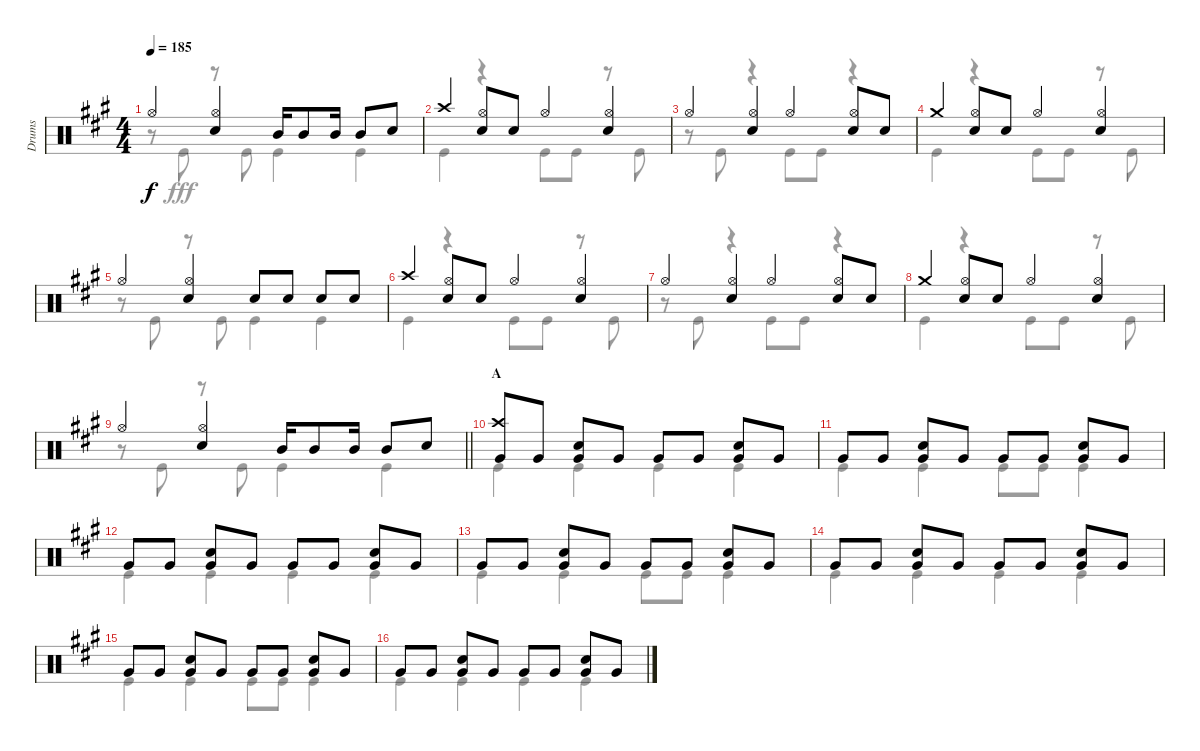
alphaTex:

\track ("Drums" "Drums") {instrument percussion}
\staff {score}
\articulation defaults
\voice
\ts (4 4)
\tempo 185
\clef neutral
\ks a "Hi-Hat (open)".4{dy f}
("Hi-Hat (open)" "Snare (hit) 2").4 "Mid Tom (hit)".16 "Mid Tom (hit)".8 "Mid Tom (hit)".16 "Mid Tom (hit)".8 "Snare (hit) 2".8 |
"Crash high (hit)".4 ("Hi-Hat (open)" "Snare (hit) 2").8 "Snare (hit) 2".8 "Hi-Hat (open)".4 ("Hi-Hat (open)" "Snare (hit) 2").4 |
"Hi-Hat (open)".4 ("Hi-Hat (open)" "Snare (hit) 2").4 "Hi-Hat (open)".4 ("Hi-Hat (open)" "Snare (hit) 2").8 "Snare (hit) 2".8 |
"Crash medium (hit)".4 ("Hi-Hat (open)" "Snare (hit) 2").8 "Snare (hit) 2".8 "Hi-Hat (open)".4 ("Hi-Hat (open)" "Snare (hit) 2").4 |
"Hi-Hat (open)".4 ("Hi-Hat (open)" "Snare (hit) 2").4 "Snare (hit) 2".8 "Snare (hit) 2".8 "Snare (hit) 2".8 "Snare (hit) 2".8 |
"Crash high (hit)".4 ("Hi-Hat (open)" "Snare (hit) 2").8 "Snare (hit) 2".8 "Hi-Hat (open)".4 ("Hi-Hat (open)" "Snare (hit) 2").4 |
"Hi-Hat (open)".4 ("Hi-Hat (open)" "Snare (hit) 2").4 "Hi-Hat (open)".4 ("Hi-Hat (open)" "Snare (hit) 2").8 "Snare (hit) 2".8 |
"Crash medium (hit)".4 ("Hi-Hat (open)" "Snare (hit) 2").8 "Snare (hit) 2".8 "Hi-Hat (open)".4 ("Hi-Hat (open)" "Snare (hit) 2").4 |
\barLineRight lightlight "Hi-Hat (open)".4
("Hi-Hat (open)" "Snare (hit) 2").4 "Mid Tom (hit)".16 "Mid Tom (hit)".8 "Mid Tom (hit)".16 "Mid Tom (hit)".8 "Snare (hit) 2".8 |
\section ("" "A")
("Crash high (hit)" "Very Low Tom (hit)").8 "Very Low Tom (hit)".8 ("Snare (hit) 2" "Very Low Tom (hit)").8 "Very Low Tom (hit)".8 "Very Low Tom (hit)".8 "Very Low Tom (hit)".8 ("Snare (hit) 2" "Very Low Tom (hit)").8 "Very Low Tom (hit)".8 |
"Very Low Tom (hit)".8 "Very Low Tom (hit)".8 ("Snare (hit) 2" "Very Low Tom (hit)").8 "Very Low Tom (hit)".8 "Very Low Tom (hit)".8 "Very Low Tom (hit)".8 ("Snare (hit) 2" "Very Low Tom (hit)").8 "Very Low Tom (hit)".8 |
"Very Low Tom (hit)".8 "Very Low Tom (hit)".8 ("Snare (hit) 2" "Very Low Tom (hit)").8 "Very Low Tom (hit)".8 "Very Low Tom (hit)".8 "Very Low Tom (hit)".8 ("Snare (hit) 2" "Very Low Tom (hit)").8 "Very Low Tom (hit)".8 |
"Very Low Tom (hit)".8 "Very Low Tom (hit)".8 ("Snare (hit) 2" "Very Low Tom (hit)").8 "Very Low Tom (hit)".8 "Very Low Tom (hit)".8 "Very Low Tom (hit)".8 ("Snare (hit) 2" "Very Low Tom (hit)").8 "Very Low Tom (hit)".8 |
"Very Low Tom (hit)".8 "Very Low Tom (hit)".8 ("Snare (hit) 2" "Very Low Tom (hit)").8 "Very Low Tom (hit)".8 "Very Low Tom (hit)".8 "Very Low Tom (hit)".8 ("Snare (hit) 2" "Very Low Tom (hit)").8 "Very Low Tom (hit)".8 |
"Very Low Tom (hit)".8 "Very Low Tom (hit)".8 ("Snare (hit) 2" "Very Low Tom (hit)").8 "Very Low Tom (hit)".8 "Very Low Tom (hit)".8 "Very Low Tom (hit)".8 ("Snare (hit) 2" "Very Low Tom (hit)").8 "Very Low Tom (hit)".8 |
"Very Low Tom (hit)".8 "Very Low Tom (hit)".8 ("Snare (hit) 2" "Very Low Tom (hit)").8 "Very Low Tom (hit)".8 "Very Low Tom (hit)".8 "Very Low Tom (hit)".8 ("Snare (hit) 2" "Very Low Tom (hit)").8 "Very Low Tom (hit)".8
\voice
\clef neutral
\ottava regular
\simile none
\ks a
r.8{dy fff} "Kick (hit)".8 r.8 "Kick (hit)".8 "Kick (hit)".4 "Kick (hit)".4 |
"Kick (hit)".4 r.4 "Kick (hit)".8 "Kick (hit)".8 r.8 "Kick (hit)".8 |
r.8 "Kick (hit)".8 r.4 "Kick (hit)".8 "Kick (hit)".8 r.4 |
"Kick (hit)".4 r.4 "Kick (hit)".8 "Kick (hit)".8 r.8 "Kick (hit)".8 |
r.8 "Kick (hit)".8 r.8 "Kick (hit)".8 "Kick (hit)".4 "Kick (hit)".4 |
"Kick (hit)".4 r.4 "Kick (hit)".8 "Kick (hit)".8 r.8 "Kick (hit)".8 |
r.8 "Kick (hit)".8 r.4 "Kick (hit)".8 "Kick (hit)".8 r.4 |
"Kick (hit)".4 r.4 "Kick (hit)".8 "Kick (hit)".8 r.8 "Kick (hit)".8 |
\barLineRight lightlight
r.8 "Kick (hit)".8 r.8 "Kick (hit)".8 "Kick (hit)".4 "Kick (hit)".4 |
"Kick (hit)".4 "Kick (hit)".4 "Kick (hit)".4 "Kick (hit)".4 |
"Kick (hit)".4 "Kick (hit)".4 "Kick (hit)".8 "Kick (hit)".8 "Kick (hit)".4 |
"Kick (hit)".4 "Kick (hit)".4 "Kick (hit)".4 "Kick (hit)".4 |
"Kick (hit)".4 "Kick (hit)".4 "Kick (hit)".8 "Kick (hit)".8 "Kick (hit)".4 |
"Kick (hit)".4 "Kick (hit)".4 "Kick (hit)".4 "Kick (hit)".4 |
"Kick (hit)".4 "Kick (hit)".4 "Kick (hit)".8 "Kick (hit)".8 "Kick (hit)".4 |
"Kick (hit)".4 "Kick (hit)".4 "Kick (hit)".4 "Kick (hit)".4
